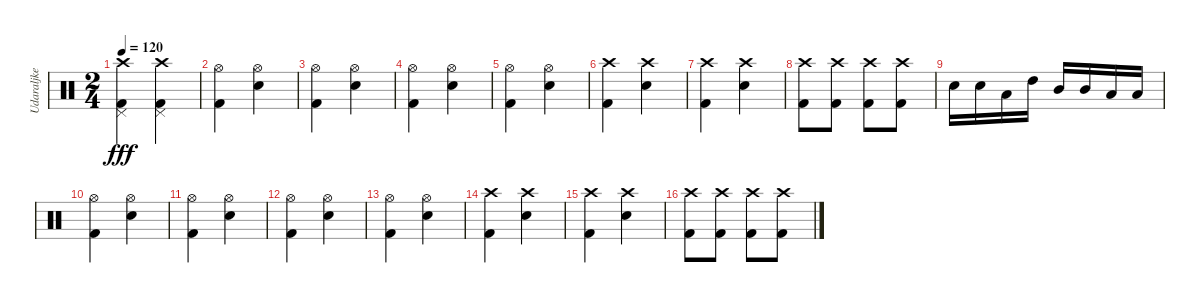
\track ("Udaraljke" "Udaraljke") {instrument percussion}
\staff
\articulation defaults
\ts (2 4)
\tempo 120
\clef neutral
\ks c
("Crash high (hit)" "Kick (hit) 2" "Pedal Hi-Hat (hit)").4{dy fff} ("Crash high (hit)" "Kick (hit) 2" "Pedal Hi-Hat (hit)").4 |
("Hi-Hat (open)" "Kick (hit) 2").4 ("Hi-Hat (open)" "Snare (hit) 2").4 |
("Hi-Hat (open)" "Kick (hit) 2").4 ("Hi-Hat (open)" "Snare (hit) 2").4 |
("Hi-Hat (open)" "Kick (hit) 2").4 ("Hi-Hat (open)" "Snare (hit) 2").4 |
("Hi-Hat (open)" "Kick (hit) 2").4 ("Hi-Hat (open)" "Snare (hit) 2").4 |
("Crash high (hit)" "Kick (hit) 2").4 ("Crash high (hit)" "Snare (hit) 2").4 |
("Crash high (hit)" "Kick (hit) 2").4 ("Crash high (hit)" "Snare (hit) 2").4 |
("Crash high (hit)" "Kick (hit) 2").8 ("Crash high (hit)" "Kick (hit) 2").8 ("Crash high (hit)" "Kick (hit) 2").8 ("Crash high (hit)" "Kick (hit) 2").8 |
"Snare (hit) 2".16 "Snare (hit) 2".16 "Low Tom (hit)".16 "High Tom (hit)".16 "Mid Tom (hit)".16 "Mid Tom (hit)".16 "Low Tom (hit)".16 "Low Tom (hit)".16 |
("Hi-Hat (open)" "Kick (hit) 2").4 ("Hi-Hat (open)" "Snare (hit) 2").4 |
("Hi-Hat (open)" "Kick (hit) 2").4 ("Hi-Hat (open)" "Snare (hit) 2").4 |
("Hi-Hat (open)" "Kick (hit) 2").4 ("Hi-Hat (open)" "Snare (hit) 2").4 |
("Hi-Hat (open)" "Kick (hit) 2").4 ("Hi-Hat (open)" "Snare (hit) 2").4 |
("Crash high (hit)" "Kick (hit) 2").4 ("Crash high (hit)" "Snare (hit) 2").4 |
("Crash high (hit)" "Kick (hit) 2").4 ("Crash high (hit)" "Snare (hit) 2").4 |
("Crash high (hit)" "Kick (hit) 2").8 ("Crash high (hit)" "Kick (hit) 2").8 ("Crash high (hit)" "Kick (hit) 2").8 ("Crash high (hit)" "Kick (hit) 2").8
